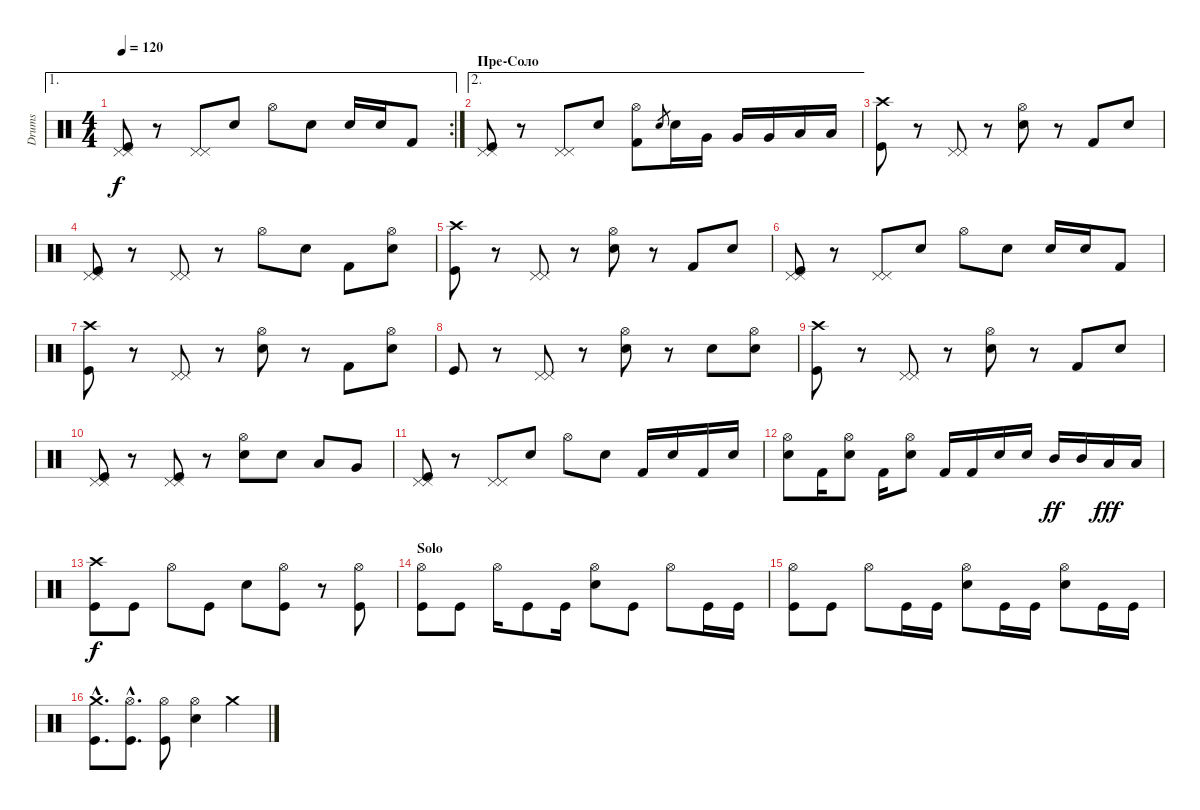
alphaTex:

\track ("Drums" "Drums") {instrument percussion}
\staff {score}
\articulation defaults
\ae 1
\rc 2
\ts (4 4)
\tempo 120
\clef neutral
\ks c
("Pedal Hi-Hat (hit)" "Pedal Hi-Hat (hit)" "Kick (hit)").8{dy f} r.8 ("Pedal Hi-Hat (hit)" "Pedal Hi-Hat (hit)").8 "Snare (hit) 2".8 "Hi-Hat (open)".8 "Snare (hit) 2".8 "Snare (hit) 2".16 "Snare (hit) 2".16 "Kick (hit) 2".8 |
\ae 2
\section ("" "Пре-Соло")
("Pedal Hi-Hat (hit)" "Pedal Hi-Hat (hit)" "Kick (hit)").8 r.8 ("Pedal Hi-Hat (hit)" "Pedal Hi-Hat (hit)").8 "Snare (hit) 2".8 ("Hi-Hat (open)" "Kick (hit) 2").8 "Snare (hit) 2".8{gr} "Snare (hit) 2".16 "Very Low Tom (hit)".16 "Very Low Tom (hit)".16 "Very Low Tom (hit)".16 "Low Floor Tom (hit)".16 "Low Floor Tom (hit)".16 |
("Crash high (hit)" "Kick (hit)").8 r.8 ("Pedal Hi-Hat (hit)" "Pedal Hi-Hat (hit)").8 r.8 ("Hi-Hat (open)" "Snare (hit) 2").8 r.8 "Kick (hit) 2".8 "Snare (hit) 2".8 |
("Pedal Hi-Hat (hit)" "Pedal Hi-Hat (hit)" "Kick (hit)").8 r.8 ("Pedal Hi-Hat (hit)" "Pedal Hi-Hat (hit)").8 r.8 "Hi-Hat (open)".8 "Snare (hit) 2".8 "Kick (hit) 2".8 ("Hi-Hat (open)" "Snare (hit) 2").8 |
("Crash high (hit)" "Kick (hit)").8 r.8 ("Pedal Hi-Hat (hit)" "Pedal Hi-Hat (hit)").8 r.8 ("Hi-Hat (open)" "Snare (hit) 2").8 r.8 "Kick (hit) 2".8 "Snare (hit) 2".8 |
("Pedal Hi-Hat (hit)" "Pedal Hi-Hat (hit)" "Kick (hit)").8 r.8 ("Pedal Hi-Hat (hit)" "Pedal Hi-Hat (hit)").8 "Snare (hit) 2".8 "Hi-Hat (open)".8 "Snare (hit) 2".8 "Snare (hit) 2".16 "Snare (hit) 2".16 "Kick (hit) 2".8 |
("Crash high (hit)" "Kick (hit)").8 r.8 ("Pedal Hi-Hat (hit)" "Pedal Hi-Hat (hit)").8 r.8 ("Hi-Hat (open)" "Snare (hit) 2").8 r.8 "Kick (hit) 2".8 ("Hi-Hat (open)" "Snare (hit) 2").8 |
"Kick (hit)".8 r.8 ("Pedal Hi-Hat (hit)" "Pedal Hi-Hat (hit)").8 r.8 ("Hi-Hat (open)" "Snare (hit) 2").8 r.8 "Snare (hit) 2".8 ("Hi-Hat (open)" "Snare (hit) 2").8 |
("Crash high (hit)" "Kick (hit)").8 r.8 ("Pedal Hi-Hat (hit)" "Pedal Hi-Hat (hit)").8 r.8 ("Hi-Hat (open)" "Snare (hit) 2").8 r.8 "Kick (hit) 2".8 "Snare (hit) 2".8 |
("Pedal Hi-Hat (hit)" "Pedal Hi-Hat (hit)" "Kick (hit)").8 r.8 ("Pedal Hi-Hat (hit)" "Pedal Hi-Hat (hit)" "Kick (hit)").8 r.8 ("Hi-Hat (open)" "Snare (hit) 2").8 "Snare (hit) 2".8 "Low Tom (hit)".8 "Very Low Tom (hit)".8 |
("Pedal Hi-Hat (hit)" "Pedal Hi-Hat (hit)" "Kick (hit)").8 r.8 ("Pedal Hi-Hat (hit)" "Pedal Hi-Hat (hit)").8 "Snare (hit) 2".8 "Hi-Hat (open)".8 "Snare (hit) 2".8 "Kick (hit) 2".16 "Snare (hit) 2".16 "Kick (hit) 2".16 "Snare (hit) 2".16 |
("Hi-Hat (open)" "Electric Snare (hit)").8 "Kick (hit) 2".16 ("Hi-Hat (open)" "Electric Snare (hit)").8 "Kick (hit) 2".16 ("Hi-Hat (open)" "Electric Snare (hit)").8 "Kick (hit) 2".16 "Kick (hit) 2".16 "Electric Snare (hit)".16 "Electric Snare (hit)".16 "Mid Tom (hit)".16{dy ff} "Mid Tom (hit)".16 "Low Tom (hit)".16{dy fff} "Low Tom (hit)".16 |
("Crash high (hit)" "Kick (hit)").8{dy f} "Kick (hit)".8 "Hi-Hat (open)".8 "Kick (hit)".8 "Electric Snare (hit)".8 ("Hi-Hat (open)" "Kick (hit)").8 r.8 ("Hi-Hat (open)" "Kick (hit)").8 |
\section ("" "Solo")
("Hi-Hat (open)" "Kick (hit)").8 "Kick (hit)".8 "Hi-Hat (open)".16 "Kick (hit)".8 "Kick (hit)".16 ("Hi-Hat (open)" "Electric Snare (hit)").8 "Kick (hit)".8 "Hi-Hat (open)".8 "Kick (hit)".16 "Kick (hit)".16 |
("Hi-Hat (open)" "Kick (hit)").8 "Kick (hit)".8 "Hi-Hat (open)".8 "Kick (hit)".16 "Kick (hit)".16 ("Hi-Hat (open)" "Electric Snare (hit)").8 "Kick (hit)".16 "Kick (hit)".16 ("Hi-Hat (open)" "Electric Snare (hit)").8 "Kick (hit)".16 "Kick (hit)".16 |
("Crash medium (hit)"{hac} "Kick (hit)"{hac}).8{d} ("Hi-Hat (open)"{hac} "Kick (hit)"{hac}).8{d} ("Hi-Hat (open)" "Kick (hit)").8 ("Hi-Hat (open)" "Electric Snare (hit)").4 "Crash medium (hit)".4
